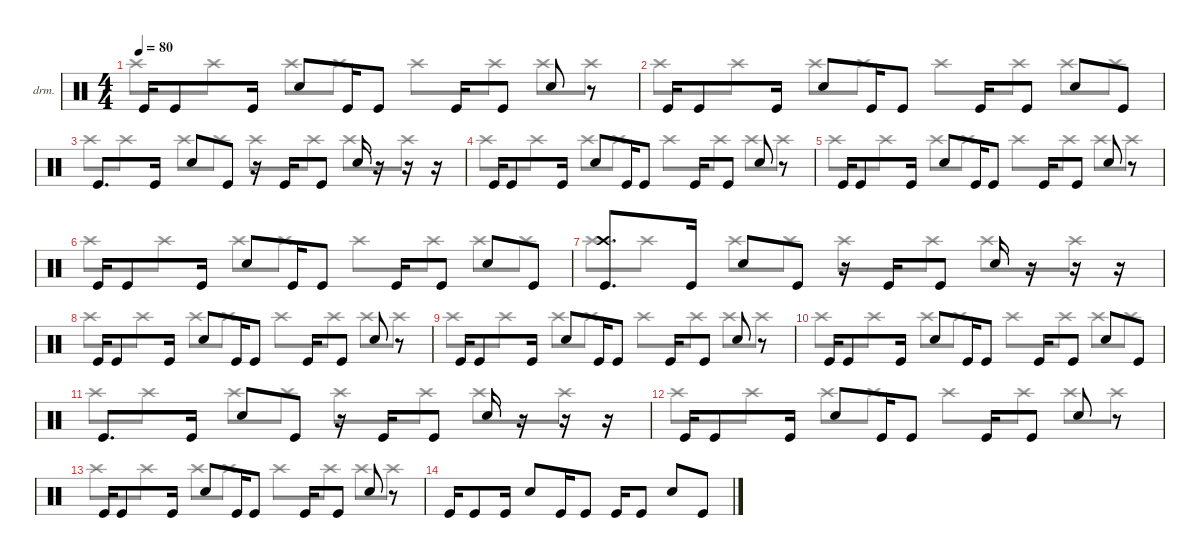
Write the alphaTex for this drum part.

\defaultSystemsLayout 4
\hideDynamics
\bracketExtendMode nobrackets
\firstSystemTrackNameOrientation horizontal
\otherSystemsTrackNameOrientation horizontal
\track ("Drumkit" "drm.") {instrument percussion}
\staff {score}
\articulation defaults
\voice
\ts (4 4)
\tempo 80
\clef neutral
\ks c "Kick (hit)".16{dy mf} "Kick (hit)".8 "Kick (hit)".16 "Snare (hit) 2".8 "Kick (hit)".16 "Kick (hit)".8 "Kick (hit)".16 "Kick (hit)".8 "Snare (hit) 2".8
r.8 |
"Kick (hit)".16 "Kick (hit)".8 "Kick (hit)".16 "Snare (hit) 2".8 "Kick (hit)".16 "Kick (hit)".8 "Kick (hit)".16 "Kick (hit)".8 "Snare (hit) 2".8 "Kick (hit)".8 |
"Kick (hit)".8{d} "Kick (hit)".16 "Snare (hit) 2".8 "Kick (hit)".8 r.16 "Kick (hit)".16 "Kick (hit)".8 "Snare (hit) 2".16 r.16 r.16 r.16 |
"Kick (hit)".16 "Kick (hit)".8 "Kick (hit)".16 "Snare (hit) 2".8 "Kick (hit)".16 "Kick (hit)".8 "Kick (hit)".16 "Kick (hit)".8 "Snare (hit) 2".8 r.8 |
"Kick (hit)".16 "Kick (hit)".8 "Kick (hit)".16 "Snare (hit) 2".8 "Kick (hit)".16 "Kick (hit)".8 "Kick (hit)".16 "Kick (hit)".8 "Snare (hit) 2".8 r.8 |
"Kick (hit)".16 "Kick (hit)".8 "Kick (hit)".16 "Snare (hit) 2".8 "Kick (hit)".16 "Kick (hit)".8 "Kick (hit)".16 "Kick (hit)".8 "Snare (hit) 2".8 "Kick (hit)".8 |
("Kick (hit)" "Crash high (hit)").8{d} "Kick (hit)".16 "Snare (hit) 2".8 "Kick (hit)".8 r.16 "Kick (hit)".16 "Kick (hit)".8 "Snare (hit) 2".16 r.16 r.16 r.16 |
"Kick (hit)".16 "Kick (hit)".8 "Kick (hit)".16 "Snare (hit) 2".8 "Kick (hit)".16 "Kick (hit)".8 "Kick (hit)".16 "Kick (hit)".8 "Snare (hit) 2".8 r.8 |
"Kick (hit)".16 "Kick (hit)".8 "Kick (hit)".16 "Snare (hit) 2".8 "Kick (hit)".16 "Kick (hit)".8 "Kick (hit)".16 "Kick (hit)".8 "Snare (hit) 2".8 r.8 |
"Kick (hit)".16 "Kick (hit)".8 "Kick (hit)".16 "Snare (hit) 2".8 "Kick (hit)".16 "Kick (hit)".8 "Kick (hit)".16 "Kick (hit)".8 "Snare (hit) 2".8 "Kick (hit)".8 |
"Kick (hit)".8{d} "Kick (hit)".16 "Snare (hit) 2".8 "Kick (hit)".8 r.16 "Kick (hit)".16 "Kick (hit)".8 "Snare (hit) 2".16 r.16 r.16 r.16 |
"Kick (hit)".16 "Kick (hit)".8 "Kick (hit)".16 "Snare (hit) 2".8 "Kick (hit)".16 "Kick (hit)".8 "Kick (hit)".16 "Kick (hit)".8 "Snare (hit) 2".8 r.8 |
"Kick (hit)".16 "Kick (hit)".8 "Kick (hit)".16 "Snare (hit) 2".8 "Kick (hit)".16 "Kick (hit)".8 "Kick (hit)".16 "Kick (hit)".8 "Snare (hit) 2".8 r.8 |
"Kick (hit)".16 "Kick (hit)".8 "Kick (hit)".16 "Snare (hit) 2".8 "Kick (hit)".16 "Kick (hit)".8 "Kick (hit)".16 "Kick (hit)".8 "Snare (hit) 2".8 "Kick (hit)".8 |
|
\voice
\clef neutral
\ottava regular
\simile none
\ks c "Crash high (hit)".8{dy mf} "Crash high (hit)".8 "Crash high (hit)".8 "Crash high (hit)".8 "Crash high (hit)".8 "Crash high (hit)".8 "Crash high (hit)".8 "Crash high (hit)".8
|
"Crash high (hit)".8 "Crash high (hit)".8 "Crash high (hit)".8 "Crash high (hit)".8 "Crash high (hit)".8 "Crash high (hit)".8 "Crash high (hit)".8 "Crash high (hit)".8 |
"Crash high (hit)".8 "Crash high (hit)".8 "Crash high (hit)".8 "Crash high (hit)".8 "Crash high (hit)".8 "Crash high (hit)".8 "Crash high (hit)".8 "Crash high (hit)".8 |
"Crash high (hit)".8 "Crash high (hit)".8 "Crash high (hit)".8 "Crash high (hit)".8 "Crash high (hit)".8 "Crash high (hit)".8 "Crash high (hit)".8 "Crash high (hit)".8 |
"Crash high (hit)".8 "Crash high (hit)".8 "Crash high (hit)".8 "Crash high (hit)".8 "Crash high (hit)".8 "Crash high (hit)".8 "Crash high (hit)".8 "Crash high (hit)".8 |
"Crash high (hit)".8 "Crash high (hit)".8 "Crash high (hit)".8 "Crash high (hit)".8 "Crash high (hit)".8 "Crash high (hit)".8 "Crash high (hit)".8 "Crash high (hit)".8 |
"Crash high (hit)".8 "Crash high (hit)".8 "Crash high (hit)".8 "Crash high (hit)".8 "Crash high (hit)".8 "Crash high (hit)".8 "Crash high (hit)".8 "Crash high (hit)".8 |
"Crash high (hit)".8 "Crash high (hit)".8 "Crash high (hit)".8 "Crash high (hit)".8 "Crash high (hit)".8 "Crash high (hit)".8 "Crash high (hit)".8 "Crash high (hit)".8 |
"Crash high (hit)".8 "Crash high (hit)".8 "Crash high (hit)".8 "Crash high (hit)".8 "Crash high (hit)".8 "Crash high (hit)".8 "Crash high (hit)".8 "Crash high (hit)".8 |
"Crash high (hit)".8 "Crash high (hit)".8 "Crash high (hit)".8 "Crash high (hit)".8 "Crash high (hit)".8 "Crash high (hit)".8 "Crash high (hit)".8 "Crash high (hit)".8 |
"Crash high (hit)".8 "Crash high (hit)".8 "Crash high (hit)".8 "Crash high (hit)".8 "Crash high (hit)".8 "Crash high (hit)".8 "Crash high (hit)".8 "Crash high (hit)".8 |
"Crash high (hit)".8 "Crash high (hit)".8 "Crash high (hit)".8 "Crash high (hit)".8 "Crash high (hit)".8 "Crash high (hit)".8 "Crash high (hit)".8 "Crash high (hit)".8 |
"Crash high (hit)".8 "Crash high (hit)".8 "Crash high (hit)".8 "Crash high (hit)".8 "Crash high (hit)".8 "Crash high (hit)".8 "Crash high (hit)".8 "Crash high (hit)".8 |
|
|
